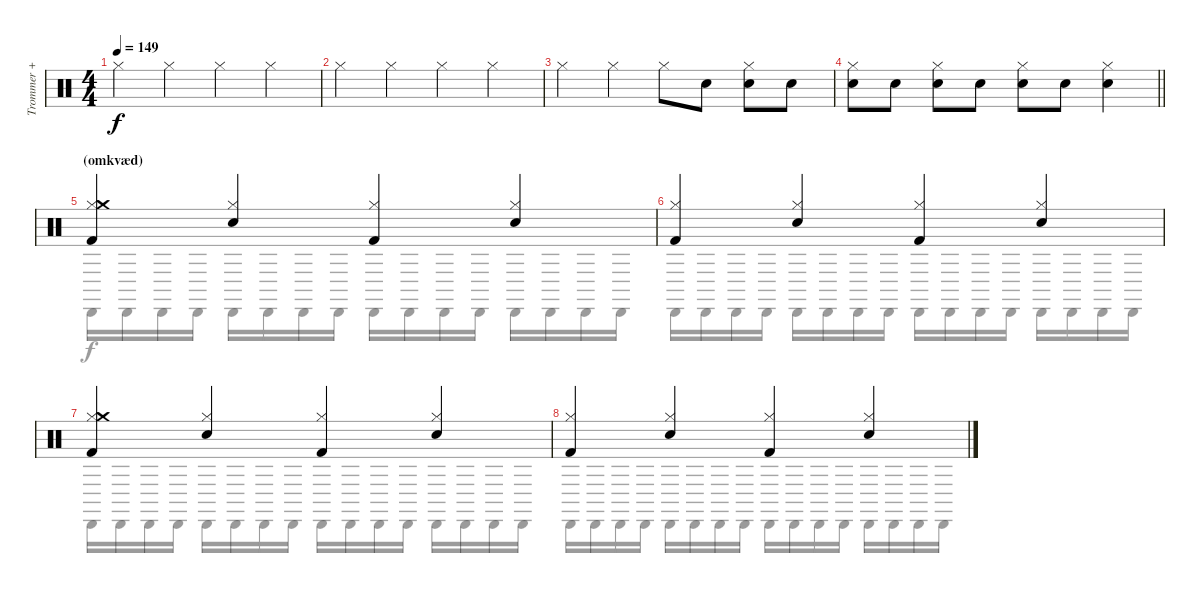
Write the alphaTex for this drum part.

\track ("Trommer + rasle-æg" "Trommer + ") {instrument percussion}
\staff {score}
\articulation defaults
\voice
\ts (4 4)
\tempo 149
\clef neutral
\ks c "Hi-Hat (closed)".4{dy f} "Hi-Hat (closed)".4 "Hi-Hat (closed)".4 "Hi-Hat (closed)".4
|
"Hi-Hat (closed)".4 "Hi-Hat (closed)".4 "Hi-Hat (closed)".4 "Hi-Hat (closed)".4 |
"Hi-Hat (closed)".4 "Hi-Hat (closed)".4 "Hi-Hat (closed)".8 "Snare (hit) 2".8 ("Hi-Hat (closed)" "Snare (hit) 2").8 "Snare (hit) 2".8 |
\barLineRight lightlight
("Hi-Hat (closed)" "Snare (hit) 2").8 "Snare (hit) 2".8 ("Hi-Hat (closed)" "Snare (hit) 2").8 "Snare (hit) 2".8 ("Hi-Hat (closed)" "Snare (hit) 2").8 "Snare (hit) 2".8 ("Hi-Hat (closed)" "Snare (hit) 2").4 |
\section ("" "(omkvæd)")
("Hi-Hat (closed)" "Crash medium (hit)" "Kick (hit) 2").4{volume 0} ("Hi-Hat (closed)" "Snare (hit) 2").4 ("Hi-Hat (closed)" "Kick (hit) 2").4 ("Hi-Hat (closed)" "Snare (hit) 2").4 |
("Hi-Hat (closed)" "Kick (hit) 2").4 ("Hi-Hat (closed)" "Snare (hit) 2").4 ("Hi-Hat (closed)" "Kick (hit) 2").4 ("Hi-Hat (closed)" "Snare (hit) 2").4 |
("Hi-Hat (closed)" "Crash medium (hit)" "Kick (hit) 2").4 ("Hi-Hat (closed)" "Snare (hit) 2").4 ("Hi-Hat (closed)" "Kick (hit) 2").4 ("Hi-Hat (closed)" "Snare (hit) 2").4 |
("Hi-Hat (closed)" "Kick (hit) 2").4 ("Hi-Hat (closed)" "Snare (hit) 2").4 ("Hi-Hat (closed)" "Kick (hit) 2").4 ("Hi-Hat (closed)" "Snare (hit) 2").4
\voice
\clef neutral
\ottava regular
\simile none
\ks c
|
|
|
\barLineRight lightlight
|
"Cabasa (hit)".16 "Cabasa (hit)".16 "Cabasa (hit)".16 "Cabasa (hit)".16 "Cabasa (hit)".16 "Cabasa (hit)".16 "Cabasa (hit)".16 "Cabasa (hit)".16 "Cabasa (hit)".16 "Cabasa (hit)".16 "Cabasa (hit)".16 "Cabasa (hit)".16 "Cabasa (hit)".16 "Cabasa (hit)".16 "Cabasa (hit)".16 "Cabasa (hit)".16 |
"Cabasa (hit)".16 "Cabasa (hit)".16 "Cabasa (hit)".16 "Cabasa (hit)".16 "Cabasa (hit)".16 "Cabasa (hit)".16 "Cabasa (hit)".16 "Cabasa (hit)".16 "Cabasa (hit)".16 "Cabasa (hit)".16 "Cabasa (hit)".16 "Cabasa (hit)".16 "Cabasa (hit)".16 "Cabasa (hit)".16 "Cabasa (hit)".16 "Cabasa (hit)".16 |
"Cabasa (hit)".16 "Cabasa (hit)".16 "Cabasa (hit)".16 "Cabasa (hit)".16 "Cabasa (hit)".16 "Cabasa (hit)".16 "Cabasa (hit)".16 "Cabasa (hit)".16 "Cabasa (hit)".16 "Cabasa (hit)".16 "Cabasa (hit)".16 "Cabasa (hit)".16 "Cabasa (hit)".16 "Cabasa (hit)".16 "Cabasa (hit)".16 "Cabasa (hit)".16 |
"Cabasa (hit)".16 "Cabasa (hit)".16 "Cabasa (hit)".16 "Cabasa (hit)".16 "Cabasa (hit)".16 "Cabasa (hit)".16 "Cabasa (hit)".16 "Cabasa (hit)".16 "Cabasa (hit)".16 "Cabasa (hit)".16 "Cabasa (hit)".16 "Cabasa (hit)".16 "Cabasa (hit)".16 "Cabasa (hit)".16 "Cabasa (hit)".16 "Cabasa (hit)".16
